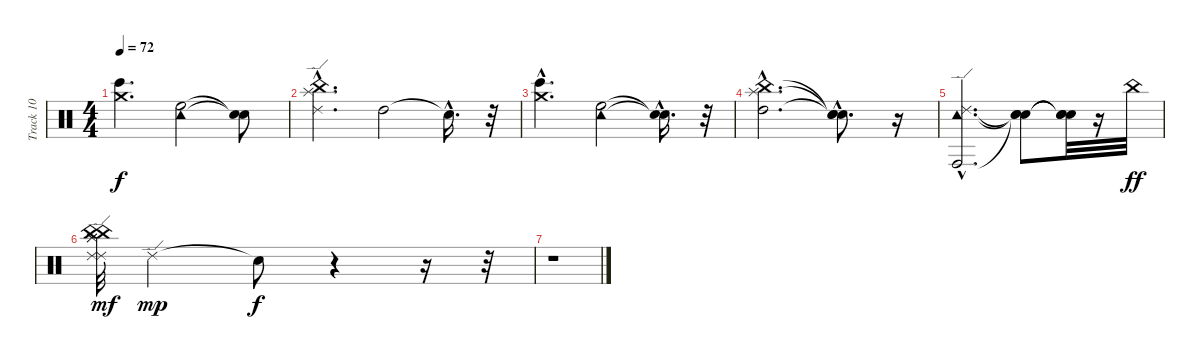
\track ("Track 10" "Track 10") {instrument percussion}
\staff {score}
\articulation defaults
\ts (4 4)
\tempo 72
\clef neutral
\ks c
("Bongo High (hit)" "Crash medium (hit)").4{d dy f} ("High Floor Tom (hit)" "Tambourine (hit)").2 ("Snare (hit)"{t} "Snare (hit)"{t}).8 |
("China (hit)" "Splash (hit)"{hac} "Ride (edge) 2").4{d} "High Tom (hit)".2 "Snare (hit)"{hac t}.16{d} r.32 |
("Bongo High (hit)"{hac} "Crash medium (hit)").4{d} ("High Floor Tom (hit)" "Tambourine (hit)").2 ("Snare (hit)"{hac t} "Snare (hit)"{hac t}).16{d} r.32 |
("High Tom (hit)"{hac} "China (hit)"{hac} "Splash (hit)"{hac}).2{d} ("Snare (hit)"{hac t} "Snare (hit)"{t} "Snare (hit)"{t}).8{d} r.16 |
("Conga high (hit)"{hac} "Tambourine (hit)"{hac} "Ride (edge) 2"{hac}).2{d} ("Snare (hit)"{t} "Snare (hit)"{t} "Snare (hit)"{t}).8 ("Snare (hit)"{t} "Snare (hit)"{t} "Snare (hit)"{t}).32 r.16 "China (hit)".32{dy ff} |
("China (hit)" "Ride (edge) 2" "Splash (hit)" "Splash (hit)" "China (hit)" "Ride (edge) 2").32{dy mf} "Ride (edge) 2".2{dy mp} "Snare (hit)"{t}.8{dy f} r.4 r.16 r.32 |
r.1
